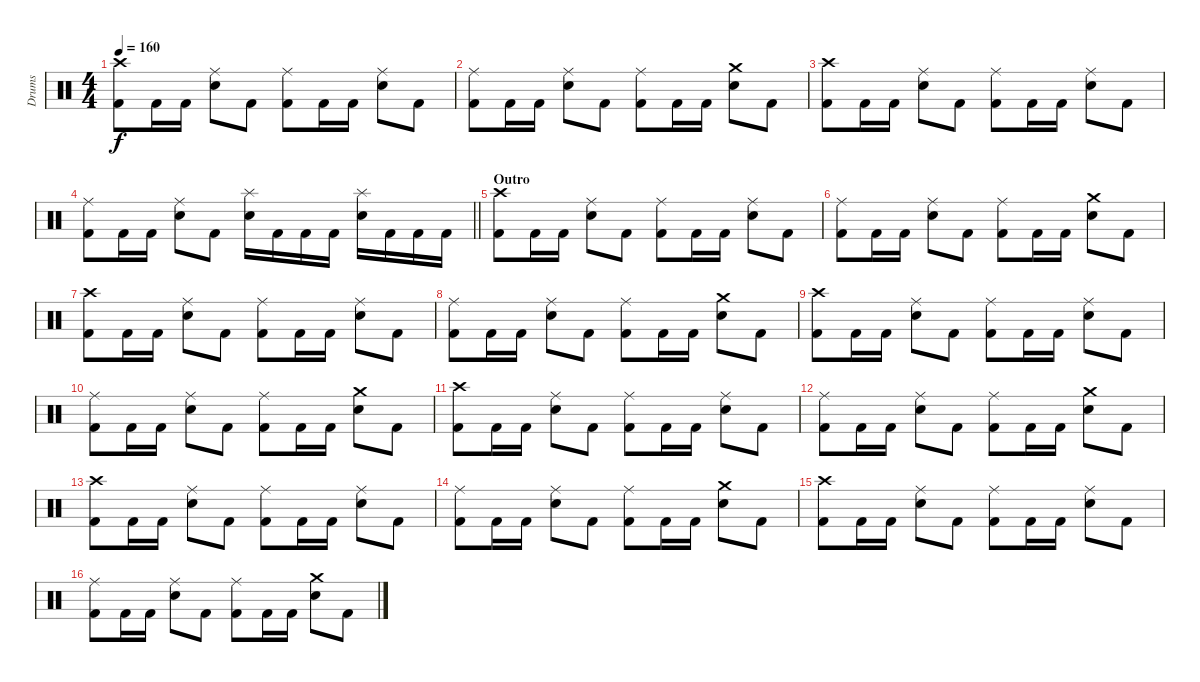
\track ("Drums" "Drums") {instrument percussion}
\staff {score}
\articulation defaults
\ts (4 4)
\tempo 160
\clef neutral
\ks c
("Crash high (hit)" "Kick (hit) 2").8{dy f} "Kick (hit) 2".16 "Kick (hit) 2".16 ("Ride (middle)" "Snare (hit) 2").8 "Kick (hit) 2".8 ("Ride (middle)" "Kick (hit) 2").8 "Kick (hit) 2".16 "Kick (hit) 2".16 ("Ride (middle)" "Snare (hit) 2").8 "Kick (hit) 2".8 |
("Ride (middle)" "Kick (hit) 2").8 "Kick (hit) 2".16 "Kick (hit) 2".16 ("Ride (middle)" "Snare (hit) 2").8 "Kick (hit) 2".8 ("Ride (middle)" "Kick (hit) 2").8 "Kick (hit) 2".16 "Kick (hit) 2".16 ("Crash medium (hit)" "Snare (hit) 2").8 "Kick (hit) 2".8 |
("Crash high (hit)" "Kick (hit) 2").8 "Kick (hit) 2".16 "Kick (hit) 2".16 ("Ride (middle)" "Snare (hit) 2").8 "Kick (hit) 2".8 ("Ride (middle)" "Kick (hit) 2").8 "Kick (hit) 2".16 "Kick (hit) 2".16 ("Ride (middle)" "Snare (hit) 2").8 "Kick (hit) 2".8 |
\barLineRight lightlight
("Ride (middle)" "Kick (hit) 2").8 "Kick (hit) 2".16 "Kick (hit) 2".16 ("Ride (middle)" "Snare (hit) 2").8 "Kick (hit) 2".8 ("Splash (hit)" "Snare (hit) 2").16 "Kick (hit) 2".16 "Kick (hit) 2".16 "Kick (hit) 2".16 ("Splash (hit)" "Snare (hit) 2").16 "Kick (hit) 2".16 "Kick (hit) 2".16 "Kick (hit) 2".16 |
\section ("" "Outro")
("Crash high (hit)" "Kick (hit) 2").8 "Kick (hit) 2".16 "Kick (hit) 2".16 ("Ride (middle)" "Snare (hit) 2").8 "Kick (hit) 2".8 ("Ride (middle)" "Kick (hit) 2").8 "Kick (hit) 2".16 "Kick (hit) 2".16 ("Ride (middle)" "Snare (hit) 2").8 "Kick (hit) 2".8 |
("Ride (middle)" "Kick (hit) 2").8 "Kick (hit) 2".16 "Kick (hit) 2".16 ("Ride (middle)" "Snare (hit) 2").8 "Kick (hit) 2".8 ("Ride (middle)" "Kick (hit) 2").8 "Kick (hit) 2".16 "Kick (hit) 2".16 ("Crash medium (hit)" "Snare (hit) 2").8 "Kick (hit) 2".8 |
("Crash high (hit)" "Kick (hit) 2").8 "Kick (hit) 2".16 "Kick (hit) 2".16 ("Ride (middle)" "Snare (hit) 2").8 "Kick (hit) 2".8 ("Ride (middle)" "Kick (hit) 2").8 "Kick (hit) 2".16 "Kick (hit) 2".16 ("Ride (middle)" "Snare (hit) 2").8 "Kick (hit) 2".8 |
("Ride (middle)" "Kick (hit) 2").8 "Kick (hit) 2".16 "Kick (hit) 2".16 ("Ride (middle)" "Snare (hit) 2").8 "Kick (hit) 2".8 ("Ride (middle)" "Kick (hit) 2").8 "Kick (hit) 2".16 "Kick (hit) 2".16 ("Crash medium (hit)" "Snare (hit) 2").8 "Kick (hit) 2".8 |
("Crash high (hit)" "Kick (hit) 2").8 "Kick (hit) 2".16 "Kick (hit) 2".16 ("Ride (middle)" "Snare (hit) 2").8 "Kick (hit) 2".8 ("Ride (middle)" "Kick (hit) 2").8 "Kick (hit) 2".16 "Kick (hit) 2".16 ("Ride (middle)" "Snare (hit) 2").8 "Kick (hit) 2".8 |
("Ride (middle)" "Kick (hit) 2").8 "Kick (hit) 2".16 "Kick (hit) 2".16 ("Ride (middle)" "Snare (hit) 2").8 "Kick (hit) 2".8 ("Ride (middle)" "Kick (hit) 2").8 "Kick (hit) 2".16 "Kick (hit) 2".16 ("Crash medium (hit)" "Snare (hit) 2").8 "Kick (hit) 2".8 |
("Crash high (hit)" "Kick (hit) 2").8 "Kick (hit) 2".16 "Kick (hit) 2".16 ("Ride (middle)" "Snare (hit) 2").8 "Kick (hit) 2".8 ("Ride (middle)" "Kick (hit) 2").8 "Kick (hit) 2".16 "Kick (hit) 2".16 ("Ride (middle)" "Snare (hit) 2").8 "Kick (hit) 2".8 |
("Ride (middle)" "Kick (hit) 2").8 "Kick (hit) 2".16 "Kick (hit) 2".16 ("Ride (middle)" "Snare (hit) 2").8 "Kick (hit) 2".8 ("Ride (middle)" "Kick (hit) 2").8 "Kick (hit) 2".16 "Kick (hit) 2".16 ("Crash medium (hit)" "Snare (hit) 2").8 "Kick (hit) 2".8 |
("Crash high (hit)" "Kick (hit) 2").8 "Kick (hit) 2".16 "Kick (hit) 2".16 ("Ride (middle)" "Snare (hit) 2").8 "Kick (hit) 2".8 ("Ride (middle)" "Kick (hit) 2").8 "Kick (hit) 2".16 "Kick (hit) 2".16 ("Ride (middle)" "Snare (hit) 2").8 "Kick (hit) 2".8 |
("Ride (middle)" "Kick (hit) 2").8 "Kick (hit) 2".16 "Kick (hit) 2".16 ("Ride (middle)" "Snare (hit) 2").8 "Kick (hit) 2".8 ("Ride (middle)" "Kick (hit) 2").8 "Kick (hit) 2".16 "Kick (hit) 2".16 ("Crash medium (hit)" "Snare (hit) 2").8 "Kick (hit) 2".8 |
("Crash high (hit)" "Kick (hit) 2").8 "Kick (hit) 2".16 "Kick (hit) 2".16 ("Ride (middle)" "Snare (hit) 2").8 "Kick (hit) 2".8 ("Ride (middle)" "Kick (hit) 2").8 "Kick (hit) 2".16 "Kick (hit) 2".16 ("Ride (middle)" "Snare (hit) 2").8 "Kick (hit) 2".8 |
("Ride (middle)" "Kick (hit) 2").8 "Kick (hit) 2".16 "Kick (hit) 2".16 ("Ride (middle)" "Snare (hit) 2").8 "Kick (hit) 2".8 ("Ride (middle)" "Kick (hit) 2").8 "Kick (hit) 2".16 "Kick (hit) 2".16 ("Crash medium (hit)" "Snare (hit) 2").8 "Kick (hit) 2".8
